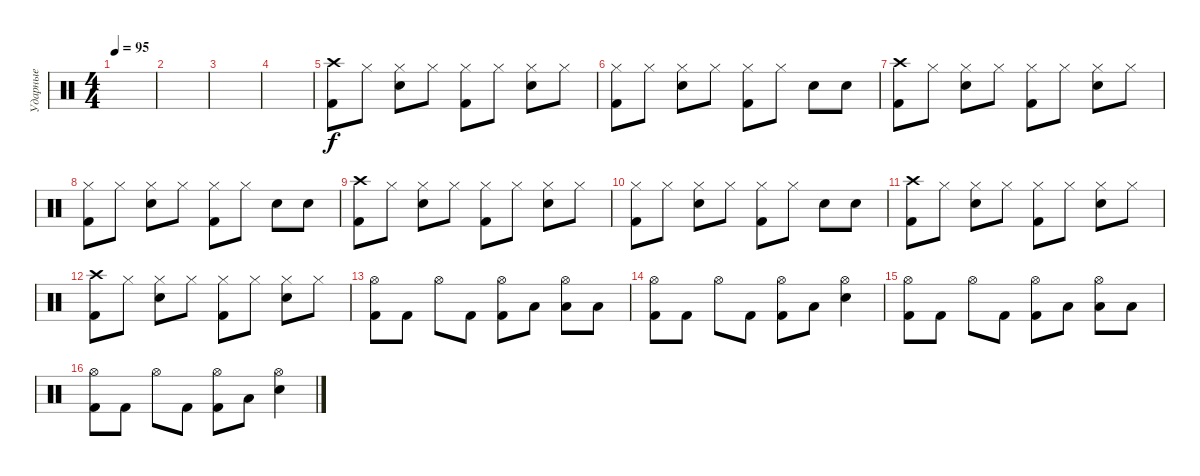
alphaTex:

\track ("Ударные" "Ударные") {instrument percussion}
\staff {score}
\articulation defaults
\ts (4 4)
\tempo 95
\clef neutral
\ks c
|
|
|
|
("Crash high (hit)" "Kick (hit) 2").8 "Hi-Hat (closed)".8 ("Hi-Hat (closed)" "Snare (hit) 2").8 "Hi-Hat (closed)".8 ("Hi-Hat (closed)" "Kick (hit) 2").8 "Hi-Hat (closed)".8 ("Hi-Hat (closed)" "Snare (hit) 2").8 "Hi-Hat (closed)".8 |
("Hi-Hat (closed)" "Kick (hit) 2").8 "Hi-Hat (closed)".8 ("Hi-Hat (closed)" "Snare (hit) 2").8 "Hi-Hat (closed)".8 ("Hi-Hat (closed)" "Kick (hit) 2").8 "Hi-Hat (closed)".8 "Snare (hit) 2".8 "Snare (hit) 2".8 |
("Crash high (hit)" "Kick (hit) 2").8 "Hi-Hat (closed)".8 ("Hi-Hat (closed)" "Snare (hit) 2").8 "Hi-Hat (closed)".8 ("Hi-Hat (closed)" "Kick (hit) 2").8 "Hi-Hat (closed)".8 ("Hi-Hat (closed)" "Snare (hit) 2").8 "Hi-Hat (closed)".8 |
("Hi-Hat (closed)" "Kick (hit) 2").8 "Hi-Hat (closed)".8 ("Hi-Hat (closed)" "Snare (hit) 2").8 "Hi-Hat (closed)".8 ("Hi-Hat (closed)" "Kick (hit) 2").8 "Hi-Hat (closed)".8 "Snare (hit) 2".8 "Snare (hit) 2".8 |
("Crash high (hit)" "Kick (hit) 2").8 "Hi-Hat (closed)".8 ("Hi-Hat (closed)" "Snare (hit) 2").8 "Hi-Hat (closed)".8 ("Hi-Hat (closed)" "Kick (hit) 2").8 "Hi-Hat (closed)".8 ("Hi-Hat (closed)" "Snare (hit) 2").8 "Hi-Hat (closed)".8 |
("Hi-Hat (closed)" "Kick (hit) 2").8 "Hi-Hat (closed)".8 ("Hi-Hat (closed)" "Snare (hit) 2").8 "Hi-Hat (closed)".8 ("Hi-Hat (closed)" "Kick (hit) 2").8 "Hi-Hat (closed)".8 "Snare (hit) 2".8 "Snare (hit) 2".8 |
("Crash high (hit)" "Kick (hit) 2").8 "Hi-Hat (closed)".8 ("Hi-Hat (closed)" "Snare (hit) 2").8 "Hi-Hat (closed)".8 ("Hi-Hat (closed)" "Kick (hit) 2").8 "Hi-Hat (closed)".8 ("Hi-Hat (closed)" "Snare (hit) 2").8 "Hi-Hat (closed)".8 |
("Crash high (hit)" "Kick (hit) 2").8 "Hi-Hat (closed)".8 ("Hi-Hat (closed)" "Snare (hit) 2").8 "Hi-Hat (closed)".8 ("Hi-Hat (closed)" "Kick (hit) 2").8 "Hi-Hat (closed)".8 ("Hi-Hat (closed)" "Snare (hit) 2").8 "Hi-Hat (closed)".8 |
("Hi-Hat (open)" "Kick (hit) 2").8 "Kick (hit) 2".8 "Hi-Hat (open)".8 "Kick (hit) 2".8 ("Hi-Hat (open)" "Kick (hit) 2").8 "Low Tom (hit)".8 ("Hi-Hat (open)" "Low Floor Tom (hit)").8 "Low Floor Tom (hit)".8 |
("Hi-Hat (open)" "Kick (hit) 2").8 "Kick (hit) 2".8 "Hi-Hat (open)".8 "Kick (hit) 2".8 ("Hi-Hat (open)" "Kick (hit) 2").8 "Low Tom (hit)".8 ("Hi-Hat (open)" "Snare (hit) 2").4 |
("Hi-Hat (open)" "Kick (hit) 2").8 "Kick (hit) 2".8 "Hi-Hat (open)".8 "Kick (hit) 2".8 ("Hi-Hat (open)" "Kick (hit) 2").8 "Low Tom (hit)".8 ("Hi-Hat (open)" "Low Floor Tom (hit)").8 "Low Floor Tom (hit)".8 |
("Hi-Hat (open)" "Kick (hit) 2").8 "Kick (hit) 2".8 "Hi-Hat (open)".8 "Kick (hit) 2".8 ("Hi-Hat (open)" "Kick (hit) 2").8 "Low Tom (hit)".8 ("Hi-Hat (open)" "Snare (hit) 2").4
